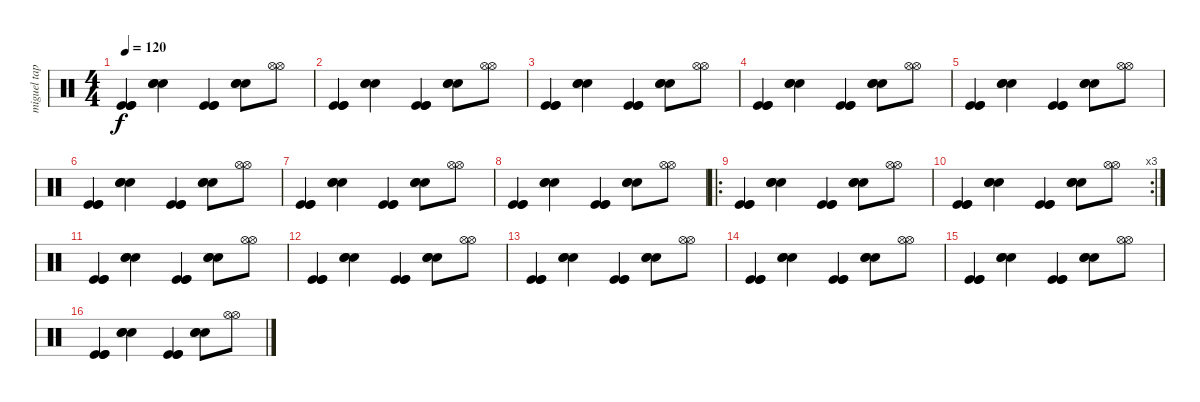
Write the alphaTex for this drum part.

\track ("miguel tapia" "miguel tap") {instrument percussion}
\staff {score}
\articulation defaults
\ts (4 4)
\tempo 120
\clef neutral
\ks c
("Kick (hit)" "Kick (hit)" "Kick (hit)").4{dy f} ("Snare (hit) 2" "Snare (hit) 2" "Snare (hit) 2").4 ("Kick (hit)" "Kick (hit)" "Kick (hit)").4 ("Snare (hit) 2" "Snare (hit) 2" "Snare (hit) 2").8 ("Hi-Hat (open)" "Hi-Hat (open)").8 |
("Kick (hit)" "Kick (hit)" "Kick (hit)").4 ("Snare (hit) 2" "Snare (hit) 2" "Snare (hit) 2").4 ("Kick (hit)" "Kick (hit)" "Kick (hit)").4 ("Snare (hit) 2" "Snare (hit) 2" "Snare (hit) 2").8 ("Hi-Hat (open)" "Hi-Hat (open)").8 |
("Kick (hit)" "Kick (hit)" "Kick (hit)").4 ("Snare (hit) 2" "Snare (hit) 2" "Snare (hit) 2").4 ("Kick (hit)" "Kick (hit)" "Kick (hit)").4 ("Snare (hit) 2" "Snare (hit) 2" "Snare (hit) 2").8 ("Hi-Hat (open)" "Hi-Hat (open)").8 |
("Kick (hit)" "Kick (hit)" "Kick (hit)").4 ("Snare (hit) 2" "Snare (hit) 2" "Snare (hit) 2").4 ("Kick (hit)" "Kick (hit)" "Kick (hit)").4 ("Snare (hit) 2" "Snare (hit) 2" "Snare (hit) 2").8 ("Hi-Hat (open)" "Hi-Hat (open)").8 |
("Kick (hit)" "Kick (hit)" "Kick (hit)").4 ("Snare (hit) 2" "Snare (hit) 2" "Snare (hit) 2").4 ("Kick (hit)" "Kick (hit)" "Kick (hit)").4 ("Snare (hit) 2" "Snare (hit) 2" "Snare (hit) 2").8 ("Hi-Hat (open)" "Hi-Hat (open)").8 |
("Kick (hit)" "Kick (hit)" "Kick (hit)").4 ("Snare (hit) 2" "Snare (hit) 2" "Snare (hit) 2").4 ("Kick (hit)" "Kick (hit)" "Kick (hit)").4 ("Snare (hit) 2" "Snare (hit) 2" "Snare (hit) 2").8 ("Hi-Hat (open)" "Hi-Hat (open)").8 |
("Kick (hit)" "Kick (hit)" "Kick (hit)").4 ("Snare (hit) 2" "Snare (hit) 2" "Snare (hit) 2").4 ("Kick (hit)" "Kick (hit)" "Kick (hit)").4 ("Snare (hit) 2" "Snare (hit) 2" "Snare (hit) 2").8 ("Hi-Hat (open)" "Hi-Hat (open)").8 |
("Kick (hit)" "Kick (hit)" "Kick (hit)").4 ("Snare (hit) 2" "Snare (hit) 2" "Snare (hit) 2").4 ("Kick (hit)" "Kick (hit)" "Kick (hit)").4 ("Snare (hit) 2" "Snare (hit) 2" "Snare (hit) 2").8 ("Hi-Hat (open)" "Hi-Hat (open)").8 |
\ro
("Kick (hit)" "Kick (hit)" "Kick (hit)").4 ("Snare (hit) 2" "Snare (hit) 2" "Snare (hit) 2").4 ("Kick (hit)" "Kick (hit)" "Kick (hit)").4 ("Snare (hit) 2" "Snare (hit) 2" "Snare (hit) 2").8 ("Hi-Hat (open)" "Hi-Hat (open)").8 |
\rc 3
("Kick (hit)" "Kick (hit)" "Kick (hit)").4 ("Snare (hit) 2" "Snare (hit) 2" "Snare (hit) 2").4 ("Kick (hit)" "Kick (hit)" "Kick (hit)").4 ("Snare (hit) 2" "Snare (hit) 2" "Snare (hit) 2").8 ("Hi-Hat (open)" "Hi-Hat (open)").8 |
("Kick (hit)" "Kick (hit)" "Kick (hit)").4 ("Snare (hit) 2" "Snare (hit) 2" "Snare (hit) 2").4 ("Kick (hit)" "Kick (hit)" "Kick (hit)").4 ("Snare (hit) 2" "Snare (hit) 2" "Snare (hit) 2").8 ("Hi-Hat (open)" "Hi-Hat (open)").8 |
("Kick (hit)" "Kick (hit)" "Kick (hit)").4 ("Snare (hit) 2" "Snare (hit) 2" "Snare (hit) 2").4 ("Kick (hit)" "Kick (hit)" "Kick (hit)").4 ("Snare (hit) 2" "Snare (hit) 2" "Snare (hit) 2").8 ("Hi-Hat (open)" "Hi-Hat (open)").8 |
("Kick (hit)" "Kick (hit)" "Kick (hit)").4 ("Snare (hit) 2" "Snare (hit) 2" "Snare (hit) 2").4 ("Kick (hit)" "Kick (hit)" "Kick (hit)").4 ("Snare (hit) 2" "Snare (hit) 2" "Snare (hit) 2").8 ("Hi-Hat (open)" "Hi-Hat (open)").8 |
("Kick (hit)" "Kick (hit)" "Kick (hit)").4 ("Snare (hit) 2" "Snare (hit) 2" "Snare (hit) 2").4 ("Kick (hit)" "Kick (hit)" "Kick (hit)").4 ("Snare (hit) 2" "Snare (hit) 2" "Snare (hit) 2").8 ("Hi-Hat (open)" "Hi-Hat (open)").8 |
("Kick (hit)" "Kick (hit)" "Kick (hit)").4 ("Snare (hit) 2" "Snare (hit) 2" "Snare (hit) 2").4 ("Kick (hit)" "Kick (hit)" "Kick (hit)").4 ("Snare (hit) 2" "Snare (hit) 2" "Snare (hit) 2").8 ("Hi-Hat (open)" "Hi-Hat (open)").8 |
("Kick (hit)" "Kick (hit)" "Kick (hit)").4 ("Snare (hit) 2" "Snare (hit) 2" "Snare (hit) 2").4 ("Kick (hit)" "Kick (hit)" "Kick (hit)").4 ("Snare (hit) 2" "Snare (hit) 2" "Snare (hit) 2").8 ("Hi-Hat (open)" "Hi-Hat (open)").8
